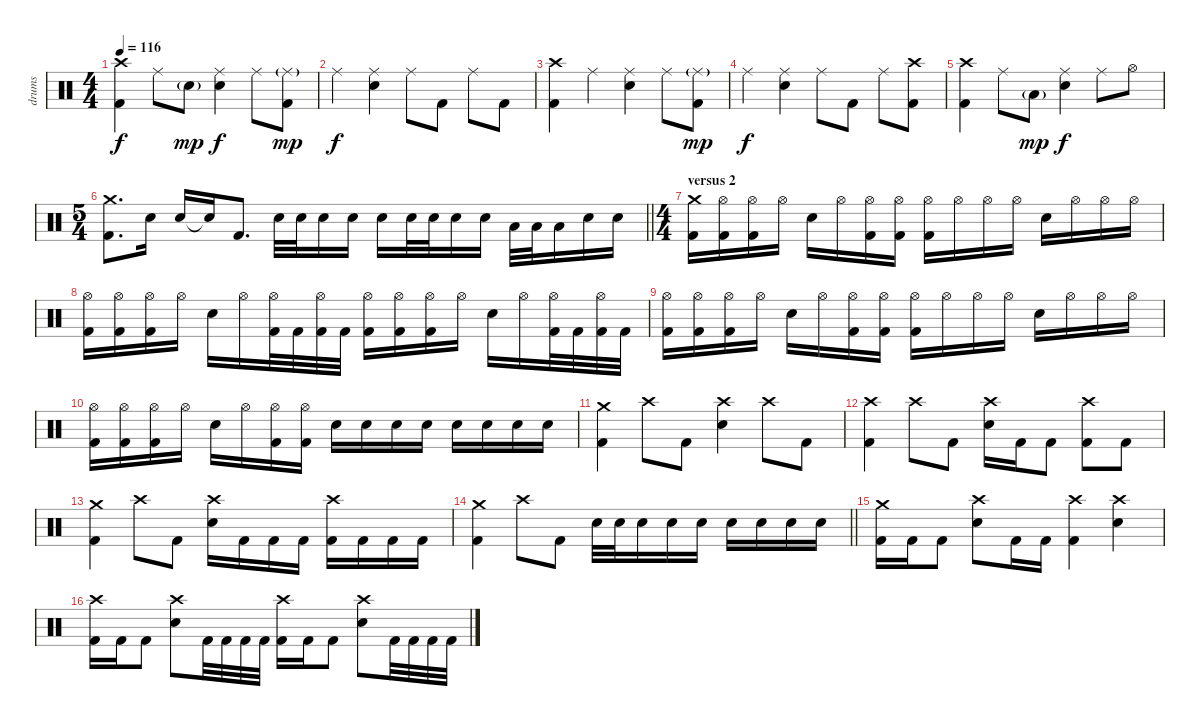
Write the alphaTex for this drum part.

\track ("drums" "drums") {instrument percussion}
\staff {score}
\articulation defaults
\ts (4 4)
\tempo 116
\clef neutral
\ks c
("Crash high (hit)" "Kick (hit) 2").4{dy f} "Ride (middle)".8 "Snare (hit) 2"{g}.8{dy mp} ("Ride (middle)" "Snare (hit) 2").4{dy f} "Ride (middle)".8 ("Ride (middle)"{g} "Kick (hit) 2").8{dy mp} |
"Ride (middle)".4{dy f} ("Ride (middle)" "Snare (hit) 2").4 "Ride (middle)".8 "Kick (hit) 2".8 "Ride (middle)".8 "Kick (hit) 2".8 |
("Crash high (hit)" "Kick (hit) 2").4 "Ride (middle)".4 ("Ride (middle)" "Snare (hit) 2").4 "Ride (middle)".8 ("Ride (middle)"{g} "Kick (hit) 2").8{dy mp} |
"Ride (middle)".4{dy f} ("Ride (middle)" "Snare (hit) 2").4 "Ride (middle)".8 "Kick (hit) 2".8 "Ride (middle)".8 ("Crash high (hit)" "Kick (hit) 2").8 |
("Crash high (hit)" "Kick (hit) 2").4 "Ride (middle)".8 "Low Tom (hit)"{g}.8{dy mp} ("Ride (middle)" "Snare (hit) 2").4{dy f} "Ride (middle)".8 "Hi-Hat (open)".8 |
\ts (5 4)
\barLineRight lightlight
("Crash medium (hit)" "Kick (hit) 2").8{d} "Snare (hit) 2".16 "Snare (hit) 2".16 "Snare (hit)"{t}.16 "Kick (hit) 2".8{d} "Snare (hit) 2".32 "Snare (hit) 2".32 "Snare (hit) 2".16 "Snare (hit) 2".16 "Snare (hit) 2".16 "Snare (hit) 2".32 "Snare (hit) 2".32 "Snare (hit) 2".16 "Snare (hit) 2".16 "Low Tom (hit)".32 "Low Tom (hit)".32 "Low Tom (hit)".16 "Snare (hit) 2".16 "Snare (hit) 2".16 |
\ts (4 4)
\section ("" "versus 2")
("Crash medium (hit)" "Kick (hit) 2").16 ("Hi-Hat (open)" "Kick (hit) 2").16 ("Hi-Hat (open)" "Kick (hit) 2").16 "Hi-Hat (open)".16 "Snare (hit) 2".16 "Hi-Hat (open)".16 ("Hi-Hat (open)" "Kick (hit) 2").16 ("Hi-Hat (open)" "Kick (hit) 2").16 ("Hi-Hat (open)" "Kick (hit) 2").16 "Hi-Hat (open)".16 "Hi-Hat (open)".16 "Hi-Hat (open)".16 "Snare (hit) 2".16 "Hi-Hat (open)".16 "Hi-Hat (open)".16 "Hi-Hat (open)".16 |
("Hi-Hat (open)" "Kick (hit) 2").16 ("Hi-Hat (open)" "Kick (hit) 2").16 ("Hi-Hat (open)" "Kick (hit) 2").16 "Hi-Hat (open)".16 "Snare (hit) 2".16 "Hi-Hat (open)".16 ("Hi-Hat (open)" "Kick (hit) 2").32 "Kick (hit) 2".32 ("Hi-Hat (open)" "Kick (hit) 2").32 "Kick (hit) 2".32 ("Hi-Hat (open)" "Kick (hit) 2").16 ("Hi-Hat (open)" "Kick (hit) 2").16 ("Hi-Hat (open)" "Kick (hit) 2").16 "Hi-Hat (open)".16 "Snare (hit) 2".16 "Hi-Hat (open)".16 ("Hi-Hat (open)" "Kick (hit) 2").32 "Kick (hit) 2".32 ("Hi-Hat (open)" "Kick (hit) 2").32 "Kick (hit) 2".32 |
("Hi-Hat (open)" "Kick (hit) 2").16 ("Hi-Hat (open)" "Kick (hit) 2").16 ("Hi-Hat (open)" "Kick (hit) 2").16 "Hi-Hat (open)".16 "Snare (hit) 2".16 "Hi-Hat (open)".16 ("Hi-Hat (open)" "Kick (hit) 2").16 ("Hi-Hat (open)" "Kick (hit) 2").16 ("Hi-Hat (open)" "Kick (hit) 2").16 "Hi-Hat (open)".16 "Hi-Hat (open)".16 "Hi-Hat (open)".16 "Snare (hit) 2".16 "Hi-Hat (open)".16 "Hi-Hat (open)".16 "Hi-Hat (open)".16 |
("Hi-Hat (open)" "Kick (hit) 2").16 ("Hi-Hat (open)" "Kick (hit) 2").16 ("Hi-Hat (open)" "Kick (hit) 2").16 "Hi-Hat (open)".16 "Snare (hit) 2".16 "Hi-Hat (open)".16 ("Hi-Hat (open)" "Kick (hit) 2").16 ("Hi-Hat (open)" "Kick (hit) 2").16 "Snare (hit) 2".16 "Snare (hit) 2".16 "Snare (hit) 2".16 "Snare (hit) 2".16 "Snare (hit) 2".16 "Snare (hit) 2".16 "Snare (hit) 2".16 "Snare (hit) 2".16 |
("Crash medium (hit)" "Kick (hit) 2").4 "Crash high (hit)".8 "Kick (hit) 2".8 ("Crash high (hit)" "Snare (hit) 2").4 "Crash high (hit)".8 "Kick (hit) 2".8 |
("Crash high (hit)" "Kick (hit) 2").4 "Crash high (hit)".8 "Kick (hit) 2".8 ("Crash high (hit)" "Snare (hit) 2").16 "Kick (hit) 2".16 "Kick (hit) 2".8 ("Crash high (hit)" "Kick (hit) 2").8 "Kick (hit) 2".8 |
("Crash medium (hit)" "Kick (hit) 2").4 "Crash high (hit)".8 "Kick (hit) 2".8 ("Crash high (hit)" "Snare (hit) 2").16 "Kick (hit) 2".16 "Kick (hit) 2".16 "Kick (hit) 2".16 ("Crash high (hit)" "Kick (hit) 2").16 "Kick (hit) 2".16 "Kick (hit) 2".16 "Kick (hit) 2".16 |
\barLineRight lightlight
("Crash medium (hit)" "Kick (hit) 2").4 "Crash high (hit)".8 "Kick (hit) 2".8 "Snare (hit) 2".32 "Snare (hit) 2".32 "Snare (hit) 2".16 "Snare (hit) 2".16 "Snare (hit) 2".16 "Snare (hit) 2".16 "Snare (hit) 2".16 "Snare (hit) 2".16 "Snare (hit) 2".16 |
("Crash medium (hit)" "Kick (hit) 2").16 "Kick (hit) 2".16 "Kick (hit) 2".8 ("Crash high (hit)" "Snare (hit) 2").8 "Kick (hit) 2".16 "Kick (hit) 2".16 ("Crash high (hit)" "Kick (hit) 2").4 ("Snare (hit) 2" "Crash high (hit)").4 |
("Crash high (hit)" "Kick (hit) 2").16 "Kick (hit) 2".16 "Kick (hit) 2".8 ("Snare (hit) 2" "Crash high (hit)").8 "Kick (hit) 2".32 "Kick (hit) 2".32 "Kick (hit) 2".32 "Kick (hit) 2".32 ("Crash high (hit)" "Kick (hit) 2").16 "Kick (hit) 2".16 "Kick (hit) 2".8 ("Snare (hit) 2" "Crash high (hit)").8 "Kick (hit) 2".32 "Kick (hit) 2".32 "Kick (hit) 2".32 "Kick (hit) 2".32
